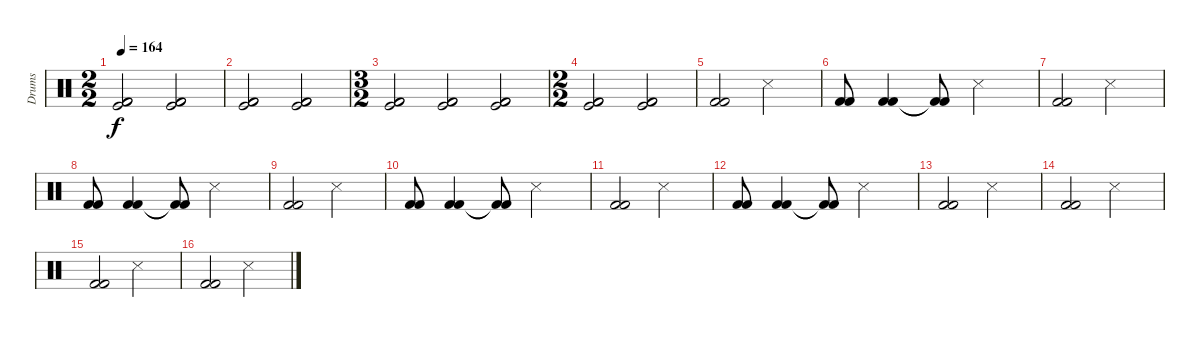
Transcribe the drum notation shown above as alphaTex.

\track ("Drums" "Drums") {instrument percussion}
\staff {score}
\articulation defaults
\ts (2 2)
\tempo 164
\clef neutral
\ks c
("Kick (hit) 2" "Kick (hit) 2" "Kick (hit)").2{dy f} ("Kick (hit) 2" "Kick (hit) 2" "Kick (hit)").2 |
("Kick (hit) 2" "Kick (hit) 2" "Kick (hit)").2 ("Kick (hit) 2" "Kick (hit) 2" "Kick (hit)").2 |
\ts (3 2)
("Kick (hit) 2" "Kick (hit) 2" "Kick (hit)").2 ("Kick (hit) 2" "Kick (hit) 2" "Kick (hit)").2 ("Kick (hit) 2" "Kick (hit) 2" "Kick (hit)").2 |
\ts (2 2)
("Kick (hit) 2" "Kick (hit) 2" "Kick (hit)").2 ("Kick (hit) 2" "Kick (hit) 2" "Kick (hit)").2 |
("Kick (hit) 2" "Kick (hit) 2").2 "Snare (side stick) 3".2 |
("Kick (hit) 2" "Kick (hit) 2").8 ("Kick (hit) 2" "Kick (hit) 2").4 ("Kick (hit) 2"{t} "Kick (hit) 2"{t}).8 "Snare (side stick) 3".2 |
("Kick (hit) 2" "Kick (hit) 2").2 "Snare (side stick) 3".2 |
("Kick (hit) 2" "Kick (hit) 2").8 ("Kick (hit) 2" "Kick (hit) 2").4 ("Kick (hit) 2"{t} "Kick (hit) 2"{t}).8 "Snare (side stick) 3".2 |
("Kick (hit) 2" "Kick (hit) 2").2 "Snare (side stick) 3".2 |
("Kick (hit) 2" "Kick (hit) 2").8 ("Kick (hit) 2" "Kick (hit) 2").4 ("Kick (hit) 2"{t} "Kick (hit) 2"{t}).8 "Snare (side stick) 3".2 |
("Kick (hit) 2" "Kick (hit) 2").2 "Snare (side stick) 3".2 |
("Kick (hit) 2" "Kick (hit) 2").8 ("Kick (hit) 2" "Kick (hit) 2").4 ("Kick (hit) 2"{t} "Kick (hit) 2"{t}).8 "Snare (side stick) 3".2 |
("Kick (hit) 2" "Kick (hit) 2").2 "Snare (side stick) 3".2 |
("Kick (hit) 2" "Kick (hit) 2").2 "Snare (side stick) 3".2 |
("Kick (hit) 2" "Kick (hit) 2").2 "Snare (side stick) 3".2 |
("Kick (hit) 2" "Kick (hit) 2").2 "Snare (side stick) 3".2
